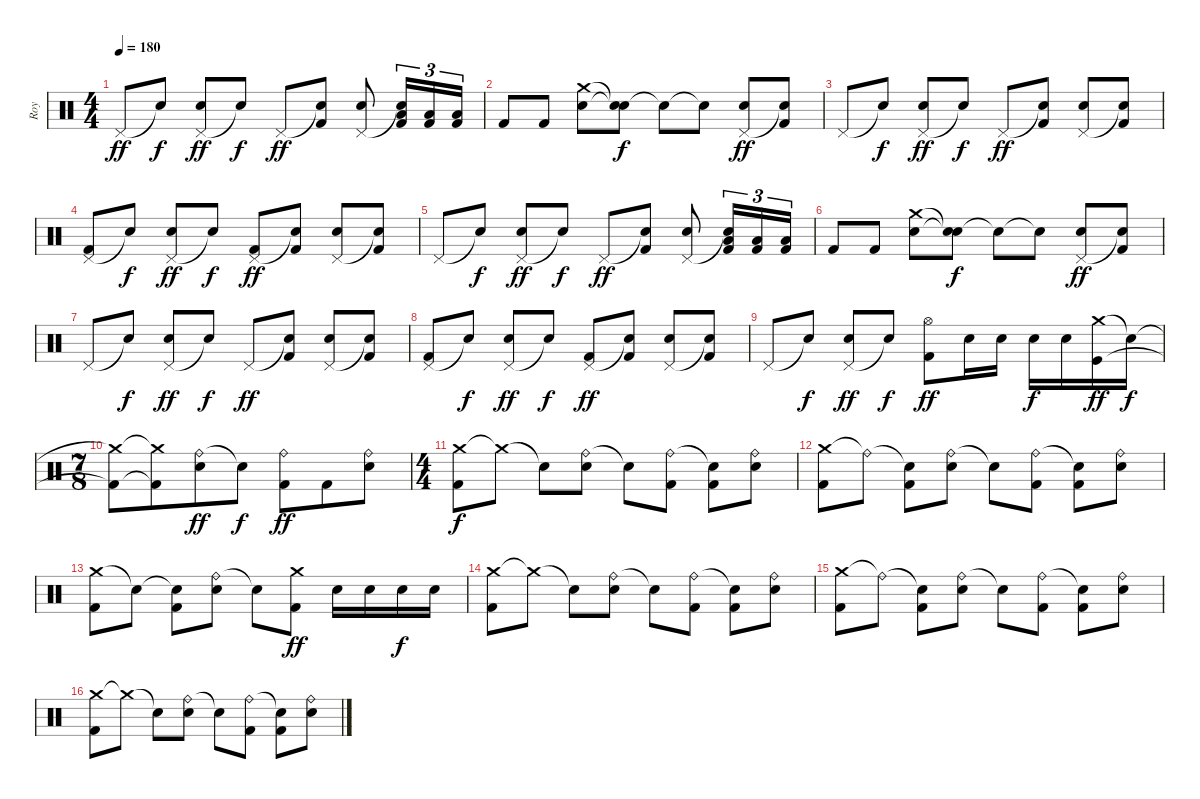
\track ("Roy" "Roy") {instrument percussion}
\staff {score}
\articulation defaults
\ts (4 4)
\tempo 180
\clef neutral
\ks c "Pedal Hi-Hat (hit)".8{dy ff} "Snare (hit)"{t}.8{dy f}
("Pedal Hi-Hat (hit)" "Electric Snare (hit)").8{dy ff} "Snare (hit)"{t}.8{dy f} "Pedal Hi-Hat (hit)".8{dy ff} ("Snare (hit)"{t} "Kick (hit) 2").8 ("Pedal Hi-Hat (hit)" "Electric Snare (hit)").8 ("Snare (hit)"{t} "Low Tom (hit)" "Kick (hit) 2").16{tu (3 2)} ("Low Tom (hit)" "Kick (hit) 2").16{tu (3 2)} ("Low Tom (hit)" "Kick (hit) 2").16{tu (3 2)} |
"Kick (hit) 2".8 "Kick (hit) 2".8 ("Crash medium (hit)" "Electric Snare (hit)").8 ("Snare (hit)"{t} "Snare (hit)"{t}).8{dy f} "Snare (hit)"{t}.8 "Snare (hit)"{t}.8 ("Pedal Hi-Hat (hit)" "Electric Snare (hit)").8{dy ff} ("Snare (hit)"{t} "Kick (hit) 2").8 |
"Pedal Hi-Hat (hit)".8 "Snare (hit)"{t}.8{dy f} ("Pedal Hi-Hat (hit)" "Electric Snare (hit)").8{dy ff} "Snare (hit)"{t}.8{dy f} "Pedal Hi-Hat (hit)".8{dy ff} ("Snare (hit)"{t} "Kick (hit) 2").8 ("Pedal Hi-Hat (hit)" "Electric Snare (hit)").8 ("Snare (hit)"{t} "Kick (hit) 2").8 |
("Pedal Hi-Hat (hit)" "Kick (hit) 2").8 "Snare (hit)"{t}.8{dy f} ("Pedal Hi-Hat (hit)" "Electric Snare (hit)").8{dy ff} "Snare (hit)"{t}.8{dy f} ("Pedal Hi-Hat (hit)" "Kick (hit) 2").8{dy ff} ("Snare (hit)"{t} "Kick (hit) 2").8 ("Pedal Hi-Hat (hit)" "Electric Snare (hit)").8 ("Snare (hit)"{t} "Kick (hit) 2").8 |
"Pedal Hi-Hat (hit)".8 "Snare (hit)"{t}.8{dy f} ("Pedal Hi-Hat (hit)" "Electric Snare (hit)").8{dy ff} "Snare (hit)"{t}.8{dy f} "Pedal Hi-Hat (hit)".8{dy ff} ("Snare (hit)"{t} "Kick (hit) 2").8 ("Pedal Hi-Hat (hit)" "Electric Snare (hit)").8 ("Snare (hit)"{t} "Low Tom (hit)" "Kick (hit) 2").16{tu (3 2)} ("Low Tom (hit)" "Kick (hit) 2").16{tu (3 2)} ("Low Tom (hit)" "Kick (hit) 2").16{tu (3 2)} |
"Kick (hit) 2".8 "Kick (hit) 2".8 ("Crash medium (hit)" "Electric Snare (hit)").8 ("Snare (hit)"{t} "Snare (hit)"{t}).8{dy f} "Snare (hit)"{t}.8 "Snare (hit)"{t}.8 ("Pedal Hi-Hat (hit)" "Electric Snare (hit)").8{dy ff} ("Snare (hit)"{t} "Kick (hit) 2").8 |
"Pedal Hi-Hat (hit)".8 "Snare (hit)"{t}.8{dy f} ("Pedal Hi-Hat (hit)" "Electric Snare (hit)").8{dy ff} "Snare (hit)"{t}.8{dy f} "Pedal Hi-Hat (hit)".8{dy ff} ("Snare (hit)"{t} "Kick (hit) 2").8 ("Pedal Hi-Hat (hit)" "Electric Snare (hit)").8 ("Snare (hit)"{t} "Kick (hit) 2").8 |
("Pedal Hi-Hat (hit)" "Kick (hit) 2").8 "Snare (hit)"{t}.8{dy f} ("Pedal Hi-Hat (hit)" "Electric Snare (hit)").8{dy ff} "Snare (hit)"{t}.8{dy f} ("Pedal Hi-Hat (hit)" "Kick (hit) 2").8{dy ff} ("Snare (hit)"{t} "Kick (hit) 2").8 ("Pedal Hi-Hat (hit)" "Electric Snare (hit)").8 ("Snare (hit)"{t} "Kick (hit) 2").8 |
"Pedal Hi-Hat (hit)".8 "Snare (hit)"{t}.8{dy f} ("Pedal Hi-Hat (hit)" "Electric Snare (hit)").8{dy ff} "Snare (hit)"{t}.8{dy f} ("Hi-Hat (open)" "Kick (hit) 2").8{dy ff} "Electric Snare (hit)".16 "Electric Snare (hit)".16 "Electric Snare (hit)".16{dy f} "Electric Snare (hit)".16 ("Crash medium (hit)" "Kick (hit)").16{dy ff} "Snare (hit)"{t}.16{dy f} |
\ts (7 8)
("Crash medium (hit)"{t} "Kick (hit) 2"{t}).8 ("Crash medium (hit)"{t} "Kick (hit) 2"{t}).8 ("Ride (bell)" "Electric Snare (hit)").8{dy ff} "Snare (hit)"{t}.8{dy f} ("Ride (bell)" "Kick (hit) 2").8{dy ff} "Kick (hit) 2".8 ("Ride (bell)" "Electric Snare (hit)").8 |
\ts (4 4)
("Crash medium (hit)" "Kick (hit) 2").8{dy f} "Crash medium (hit)"{t}.8 "Snare (hit)"{t}.8 ("Ride (bell)" "Electric Snare (hit)").8 "Snare (hit)"{t}.8 ("Ride (bell)" "Kick (hit) 2").8 ("Snare (hit)"{t} "Kick (hit) 2").8 ("Ride (bell)" "Electric Snare (hit)").8 |
("Crash medium (hit)" "Kick (hit) 2").8 "Ride (bell)"{t}.8 ("Snare (hit)"{t} "Kick (hit) 2").8 ("Ride (bell)" "Electric Snare (hit)").8 "Snare (hit)"{t}.8 ("Ride (bell)" "Kick (hit) 2").8 ("Snare (hit)"{t} "Kick (hit) 2").8 ("Ride (bell)" "Electric Snare (hit)").8 |
("Crash medium (hit)" "Kick (hit) 2").8 "Snare (hit)"{t}.8 ("Snare (hit)"{t} "Kick (hit) 2").8 ("Ride (bell)" "Electric Snare (hit)").8 "Snare (hit)"{t}.8 ("Crash medium (hit)" "Kick (hit) 2").8{dy ff} "Electric Snare (hit)".16 "Electric Snare (hit)".16 "Electric Snare (hit)".16{dy f} "Electric Snare (hit)".16 |
("Crash medium (hit)" "Kick (hit) 2").8 "Crash medium (hit)"{t}.8 "Snare (hit)"{t}.8 ("Ride (bell)" "Electric Snare (hit)").8 "Snare (hit)"{t}.8 ("Ride (bell)" "Kick (hit) 2").8 ("Snare (hit)"{t} "Kick (hit) 2").8 ("Ride (bell)" "Electric Snare (hit)").8 |
("Crash medium (hit)" "Kick (hit) 2").8 "Ride (bell)"{t}.8 ("Snare (hit)"{t} "Kick (hit) 2").8 ("Ride (bell)" "Electric Snare (hit)").8 "Snare (hit)"{t}.8 ("Ride (bell)" "Kick (hit) 2").8 ("Snare (hit)"{t} "Kick (hit) 2").8 ("Ride (bell)" "Electric Snare (hit)").8 |
("Crash medium (hit)" "Kick (hit) 2").8 "Crash medium (hit)"{t}.8 "Snare (hit)"{t}.8 ("Ride (bell)" "Electric Snare (hit)").8 "Snare (hit)"{t}.8 ("Ride (bell)" "Kick (hit) 2").8 ("Snare (hit)"{t} "Kick (hit) 2").8 ("Ride (bell)" "Electric Snare (hit)").8
